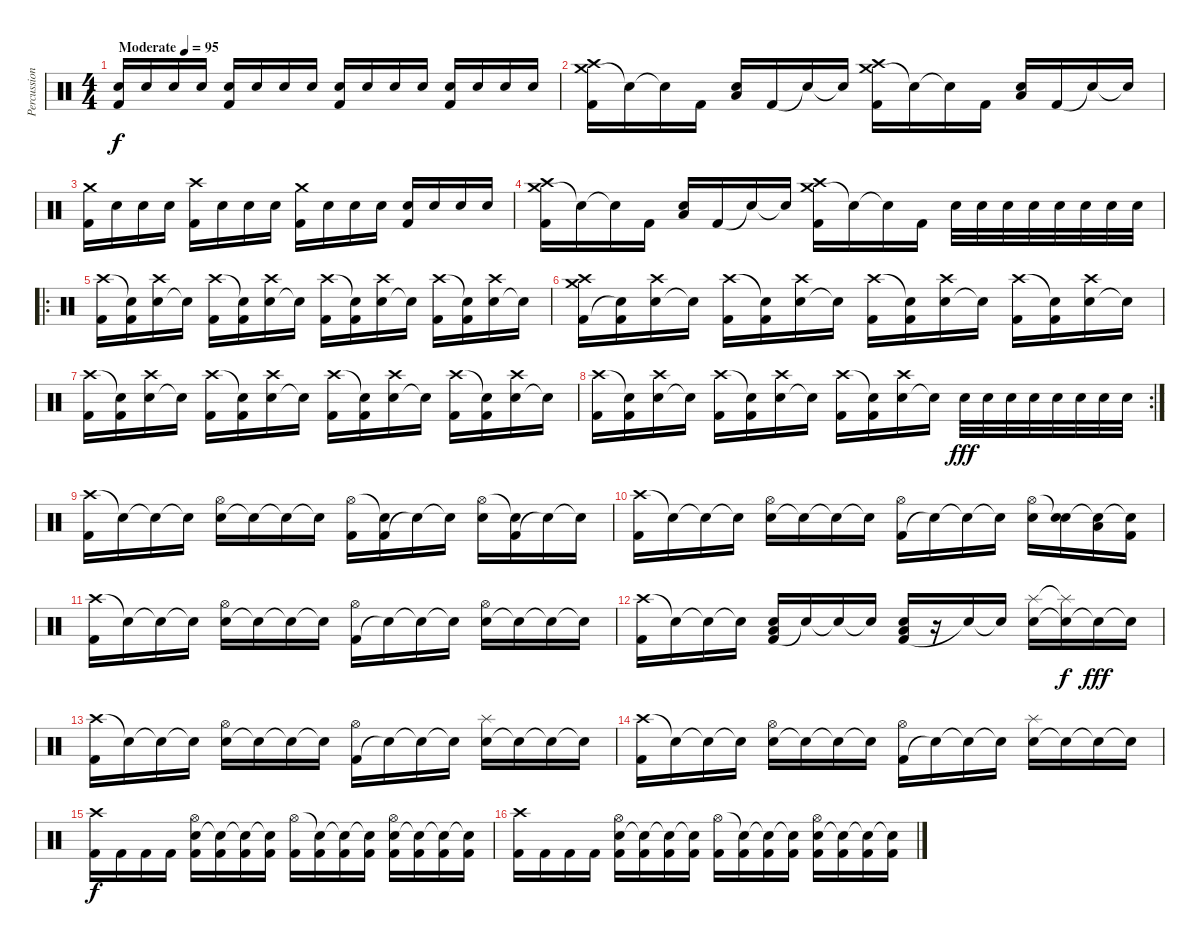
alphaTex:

\track ("Percussion" "Percussion") {instrument percussion}
\staff {score}
\articulation defaults
\ts (4 4)
\tempo (95 "Moderate")
\clef neutral
\ks c
("Kick (hit) 2" "Electric Snare (hit)").16{dy f} "Electric Snare (hit)".16 "Electric Snare (hit)".16 "Electric Snare (hit)".16 ("Kick (hit) 2" "Electric Snare (hit)").16 "Electric Snare (hit)".16 "Electric Snare (hit)".16 "Electric Snare (hit)".16 ("Kick (hit) 2" "Electric Snare (hit)").16 "Electric Snare (hit)".16 "Electric Snare (hit)".16 "Electric Snare (hit)".16 ("Kick (hit) 2" "Electric Snare (hit)").16 "Electric Snare (hit)".16 "Electric Snare (hit)".16 "Electric Snare (hit)".16 |
("Crash medium (hit)" "Crash high (hit)" "Kick (hit) 2").16 "Snare (hit)"{t}.16 "Snare (hit)"{t}.16 "Kick (hit) 2".16 ("Low Floor Tom (hit)" "Electric Snare (hit)").16 "Kick (hit) 2".16 "Snare (hit)"{t}.16 "Snare (hit)"{t}.16 ("Crash medium (hit)" "Crash high (hit)" "Kick (hit) 2").16 "Snare (hit)"{t}.16 "Snare (hit)"{t}.16 "Kick (hit) 2".16 ("Low Floor Tom (hit)" "Electric Snare (hit)").16 "Kick (hit) 2".16 "Snare (hit)"{t}.16 "Snare (hit)"{t}.16 |
("Crash medium (hit)" "Kick (hit) 2").16 "Electric Snare (hit)".16 "Electric Snare (hit)".16 "Electric Snare (hit)".16 ("Kick (hit) 2" "Crash high (hit)").16 "Electric Snare (hit)".16 "Electric Snare (hit)".16 "Electric Snare (hit)".16 ("Kick (hit) 2" "Crash medium (hit)").16 "Electric Snare (hit)".16 "Electric Snare (hit)".16 "Electric Snare (hit)".16 ("Kick (hit) 2" "Electric Snare (hit)").16 "Electric Snare (hit)".16 "Electric Snare (hit)".16 "Electric Snare (hit)".16 |
("Crash medium (hit)" "Crash high (hit)" "Kick (hit) 2").16 "Snare (hit)"{t}.16 "Snare (hit)"{t}.16 "Kick (hit) 2".16 ("Low Floor Tom (hit)" "Electric Snare (hit)").16 "Kick (hit) 2".16 "Snare (hit)"{t}.16 "Snare (hit)"{t}.16 ("Crash medium (hit)" "Crash high (hit)" "Kick (hit) 2").16 "Snare (hit)"{t}.16 "Snare (hit)"{t}.16 "Kick (hit) 2".16 "Electric Snare (hit)".32 "Electric Snare (hit)".32 "Electric Snare (hit)".32 "Electric Snare (hit)".32 "Electric Snare (hit)".32 "Electric Snare (hit)".32 "Electric Snare (hit)".32 "Electric Snare (hit)".32 |
\ro
("Kick (hit) 2" "Crash high (hit)").16 ("Kick (hit) 2" "Snare (hit)"{t}).16 ("Electric Snare (hit)" "Crash high (hit)").16 "Snare (hit)"{t}.16 ("Kick (hit) 2" "Crash high (hit)").16 ("Kick (hit) 2" "Snare (hit)"{t}).16 ("Electric Snare (hit)" "Crash high (hit)").16 "Snare (hit)"{t}.16 ("Kick (hit) 2" "Crash high (hit)").16 ("Kick (hit) 2" "Snare (hit)"{t}).16 ("Electric Snare (hit)" "Crash high (hit)").16 "Snare (hit)"{t}.16 ("Kick (hit) 2" "Crash high (hit)").16 ("Kick (hit) 2" "Snare (hit)"{t}).16 ("Electric Snare (hit)" "Crash high (hit)").16 "Snare (hit)"{t}.16 |
("Crash medium (hit)" "Kick (hit) 2" "Crash high (hit)").16 ("Kick (hit) 2" "Snare (hit)"{t}).16 ("Electric Snare (hit)" "Crash high (hit)").16 "Snare (hit)"{t}.16 ("Kick (hit) 2" "Crash high (hit)").16 ("Kick (hit) 2" "Snare (hit)"{t}).16 ("Electric Snare (hit)" "Crash high (hit)").16 "Snare (hit)"{t}.16 ("Kick (hit) 2" "Crash high (hit)").16 ("Kick (hit) 2" "Snare (hit)"{t}).16 ("Electric Snare (hit)" "Crash high (hit)").16 "Snare (hit)"{t}.16 ("Kick (hit) 2" "Crash high (hit)").16 ("Kick (hit) 2" "Snare (hit)"{t}).16 ("Electric Snare (hit)" "Crash high (hit)").16 "Snare (hit)"{t}.16 |
("Kick (hit) 2" "Crash high (hit)").16 ("Kick (hit) 2" "Snare (hit)"{t}).16 ("Electric Snare (hit)" "Crash high (hit)").16 "Snare (hit)"{t}.16 ("Kick (hit) 2" "Crash high (hit)").16 ("Kick (hit) 2" "Snare (hit)"{t}).16 ("Electric Snare (hit)" "Crash high (hit)").16 "Snare (hit)"{t}.16 ("Kick (hit) 2" "Crash high (hit)").16 ("Kick (hit) 2" "Snare (hit)"{t}).16 ("Electric Snare (hit)" "Crash high (hit)").16 "Snare (hit)"{t}.16 ("Kick (hit) 2" "Crash high (hit)").16 ("Kick (hit) 2" "Snare (hit)"{t}).16 ("Electric Snare (hit)" "Crash high (hit)").16 "Snare (hit)"{t}.16 |
\rc 2
("Kick (hit) 2" "Crash high (hit)").16 ("Kick (hit) 2" "Snare (hit)"{t}).16 ("Electric Snare (hit)" "Crash high (hit)").16 "Snare (hit)"{t}.16 ("Kick (hit) 2" "Crash high (hit)").16 ("Kick (hit) 2" "Snare (hit)"{t}).16 ("Electric Snare (hit)" "Crash high (hit)").16 "Snare (hit)"{t}.16 ("Kick (hit) 2" "Crash high (hit)").16 ("Kick (hit) 2" "Snare (hit)"{t}).16 ("Electric Snare (hit)" "Crash high (hit)").16 "Snare (hit)"{t}.16 "Electric Snare (hit)".32{dy fff} "Electric Snare (hit)".32 "Electric Snare (hit)".32 "Electric Snare (hit)".32 "Electric Snare (hit)".32 "Electric Snare (hit)".32 "Electric Snare (hit)".32 "Electric Snare (hit)".32 |
("Crash high (hit)" "Kick (hit) 2").16 "Snare (hit)"{t}.16 "Snare (hit)"{t}.16 "Snare (hit)"{t}.16 ("Electric Snare (hit)" "Hi-Hat (open)").16 "Snare (hit)"{t}.16 "Snare (hit)"{t}.16 "Snare (hit)"{t}.16 ("Kick (hit) 2" "Hi-Hat (open)").16 ("Kick (hit) 2" "Snare (hit)"{t}).16 "Snare (hit)"{t}.16 "Snare (hit)"{t}.16 ("Electric Snare (hit)" "Hi-Hat (open)").16 ("Kick (hit) 2" "Snare (hit)"{t}).16 "Snare (hit)"{t}.16 "Snare (hit)"{t}.16 |
("Crash high (hit)" "Kick (hit) 2").16 "Snare (hit)"{t}.16 "Snare (hit)"{t}.16 "Snare (hit)"{t}.16 ("Electric Snare (hit)" "Hi-Hat (open)").16 "Snare (hit)"{t}.16 "Snare (hit)"{t}.16 "Snare (hit)"{t}.16 ("Kick (hit) 2" "Hi-Hat (open)").16 "Snare (hit)"{t}.16 "Snare (hit)"{t}.16 "Snare (hit)"{t}.16 ("Electric Snare (hit)" "Hi-Hat (open)").16 ("Electric Snare (hit)" "Snare (hit)"{t}).16 ("Low Floor Tom (hit)" "Snare (hit)"{t}).16 ("Kick (hit) 2" "Snare (hit)"{t}).16 |
("Crash high (hit)" "Kick (hit) 2").16 "Snare (hit)"{t}.16 "Snare (hit)"{t}.16 "Snare (hit)"{t}.16 ("Electric Snare (hit)" "Hi-Hat (open)").16 "Snare (hit)"{t}.16 "Snare (hit)"{t}.16 "Snare (hit)"{t}.16 ("Kick (hit) 2" "Hi-Hat (open)").16 "Snare (hit)"{t}.16 "Snare (hit)"{t}.16 "Snare (hit)"{t}.16 ("Electric Snare (hit)" "Hi-Hat (open)").16 "Snare (hit)"{t}.16 "Snare (hit)"{t}.16 "Snare (hit)"{t}.16 |
("Crash high (hit)" "Kick (hit) 2").16 "Snare (hit)"{t}.16 "Snare (hit)"{t}.16 "Snare (hit)"{t}.16 ("Kick (hit) 2" "Electric Snare (hit)" "Low Floor Tom (hit)").16 "Snare (hit)"{t}.16 "Snare (hit)"{t}.16 "Snare (hit)"{t}.16 ("Kick (hit) 2" "Electric Snare (hit)" "Low Floor Tom (hit)").16 r.16 "Snare (hit)"{t}.16 "Snare (hit)"{t}.16 ("Electric Snare (hit)" "Splash (hit)").16 ("Electric Snare (hit)"{t} "Splash (hit)"{t}).16{dy f} "Snare (hit)"{t}.16{dy fff} "Snare (hit)"{t}.16 |
("Crash high (hit)" "Kick (hit) 2").16 "Snare (hit)"{t}.16 "Snare (hit)"{t}.16 "Snare (hit)"{t}.16 ("Electric Snare (hit)" "Hi-Hat (open)").16 "Snare (hit)"{t}.16 "Snare (hit)"{t}.16 "Snare (hit)"{t}.16 ("Kick (hit) 2" "Hi-Hat (open)").16 "Snare (hit)"{t}.16 "Snare (hit)"{t}.16 "Snare (hit)"{t}.16 ("Electric Snare (hit)" "Splash (hit)").16 "Snare (hit)"{t}.16 "Snare (hit)"{t}.16 "Snare (hit)"{t}.16 |
("Crash high (hit)" "Kick (hit) 2").16 "Snare (hit)"{t}.16 "Snare (hit)"{t}.16 "Snare (hit)"{t}.16 ("Electric Snare (hit)" "Hi-Hat (open)").16 "Snare (hit)"{t}.16 "Snare (hit)"{t}.16 "Snare (hit)"{t}.16 ("Kick (hit) 2" "Hi-Hat (open)").16 "Snare (hit)"{t}.16 "Snare (hit)"{t}.16 "Snare (hit)"{t}.16 ("Electric Snare (hit)" "Splash (hit)").16 "Snare (hit)"{t}.16 "Snare (hit)"{t}.16 "Snare (hit)"{t}.16 |
("Crash high (hit)" "Kick (hit) 2").16{dy f} "Kick (hit) 2".16 "Kick (hit) 2".16 "Kick (hit) 2".16 ("Kick (hit) 2" "Electric Snare (hit)" "Hi-Hat (open)").16 ("Kick (hit) 2" "Snare (hit)"{t}).16 ("Kick (hit) 2" "Snare (hit)"{t}).16 ("Kick (hit) 2" "Snare (hit)"{t}).16 ("Kick (hit) 2" "Hi-Hat (open)").16 ("Kick (hit) 2" "Snare (hit)"{t}).16 ("Kick (hit) 2" "Snare (hit)"{t}).16 ("Kick (hit) 2" "Snare (hit)"{t}).16 ("Kick (hit) 2" "Electric Snare (hit)" "Hi-Hat (open)").16 ("Kick (hit) 2" "Snare (hit)"{t}).16 ("Kick (hit) 2" "Snare (hit)"{t}).16 ("Kick (hit) 2" "Snare (hit)"{t}).16 |
("Crash high (hit)" "Kick (hit) 2").16 "Kick (hit) 2".16 "Kick (hit) 2".16 "Kick (hit) 2".16 ("Kick (hit) 2" "Electric Snare (hit)" "Hi-Hat (open)").16 ("Kick (hit) 2" "Snare (hit)"{t}).16 ("Kick (hit) 2" "Snare (hit)"{t}).16 ("Kick (hit) 2" "Snare (hit)"{t}).16 ("Kick (hit) 2" "Hi-Hat (open)").16 ("Kick (hit) 2" "Snare (hit)"{t}).16 ("Kick (hit) 2" "Snare (hit)"{t}).16 ("Kick (hit) 2" "Snare (hit)"{t}).16 ("Kick (hit) 2" "Electric Snare (hit)" "Hi-Hat (open)").16 ("Kick (hit) 2" "Snare (hit)"{t}).16 ("Kick (hit) 2" "Snare (hit)"{t}).16 ("Kick (hit) 2" "Snare (hit)"{t}).16
